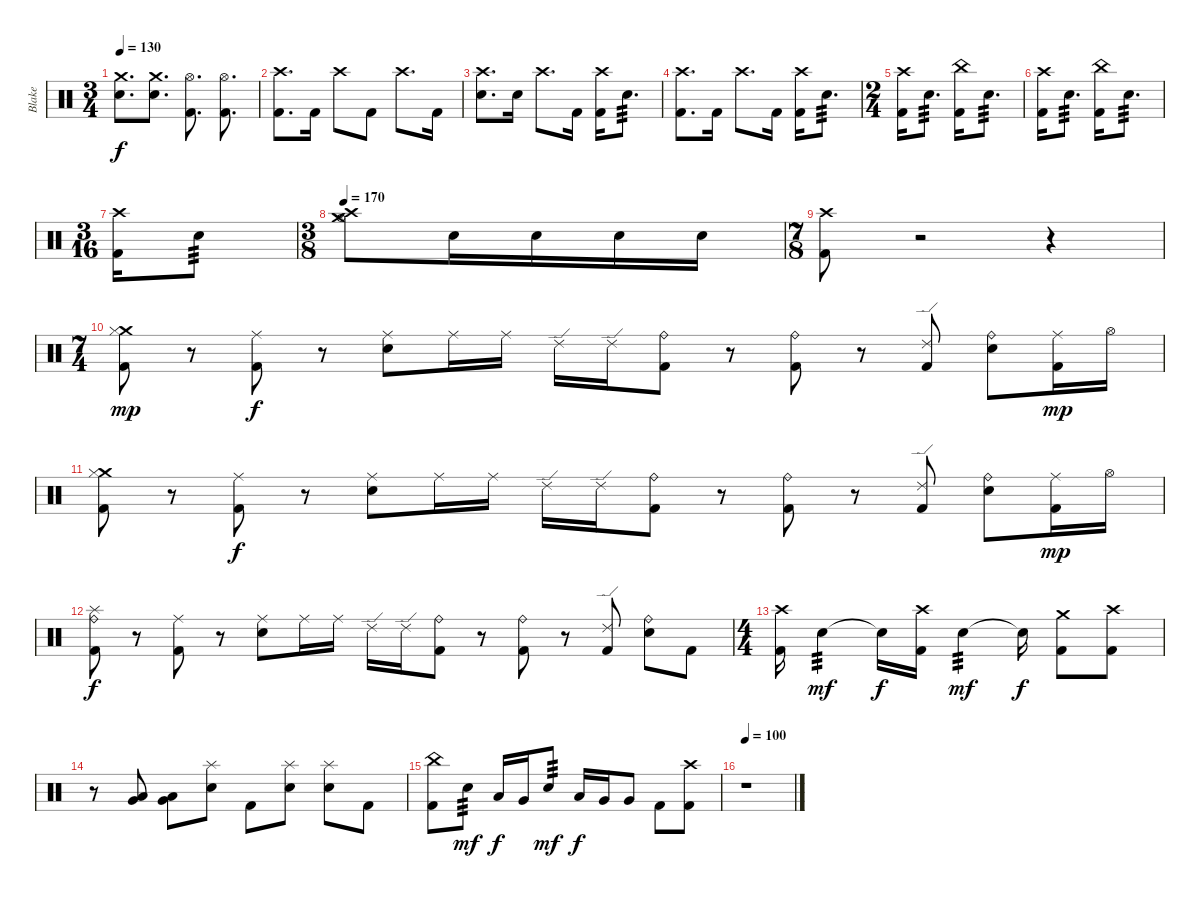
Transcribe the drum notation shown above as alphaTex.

\track ("Blake" "Blake") {instrument percussion}
\staff {score}
\articulation defaults
\ts (3 4)
\tempo 130
\clef neutral
\ks c
("Crash medium (hit)" "Snare (hit) 2").8{d dy f} ("Crash medium (hit)" "Snare (hit) 2").8{d} ("Hi-Hat (open)" "Kick (hit) 2").8{d} ("Hi-Hat (open)" "Kick (hit) 2").8{d} |
("Crash high (hit)" "Kick (hit) 2").8{d} "Kick (hit) 2".16 "Crash high (hit)".8 "Kick (hit) 2".8 "Crash high (hit)".8{d} "Kick (hit) 2".16 |
("Crash high (hit)" "Snare (hit) 2").8{d} "Snare (hit) 2".16 "Crash high (hit)".8{d} "Kick (hit) 2".16 ("Crash high (hit)" "Kick (hit) 2").16 "Snare (hit) 2".8{d tp 3} |
("Crash high (hit)" "Kick (hit) 2").8{d} "Kick (hit) 2".16 "Crash high (hit)".8{d} "Kick (hit) 2".16 ("Crash high (hit)" "Kick (hit) 2").16 "Snare (hit) 2".8{d tp 3} |
\ts (2 4)
("Crash high (hit)" "Kick (hit) 2").16 "Snare (hit) 2".8{d tp 3} ("China (hit)" "Kick (hit) 2").16 "Snare (hit) 2".8{d tp 3} |
("Crash high (hit)" "Kick (hit) 2").16 "Snare (hit) 2".8{d tp 3} ("China (hit)" "Kick (hit) 2").16 "Snare (hit) 2".8{d tp 3} |
\ts (3 16)
("Crash high (hit)" "Kick (hit) 2").16 "Snare (hit) 2".8{tp 3} |
\ts (3 8)
\tempo 170
("Crash medium (hit)" "Crash high (hit)" "Hi-Hat (open)").8 "Snare (hit) 2".16 "Snare (hit) 2".16 "Snare (hit) 2".16 "Snare (hit) 2".16 |
\ts (7 8)
("Crash high (hit)" "Kick (hit) 2").8 r.2 r.4 |
\ts (7 4)
("Crash medium (hit)" "Hi-Hat (closed)" "Kick (hit) 2").8{dy mp} r.8 ("Ride (middle)" "Kick (hit) 2").8{dy f} r.8 ("Ride (middle)" "Snare (hit) 2").8 "Ride (middle)".16 "Ride (middle)".16 "Ride (edge) 2".16 "Ride (edge) 2".16 ("Ride (bell)" "Kick (hit) 2").8 r.8 ("Ride (bell)" "Kick (hit) 2").8 r.8 ("Ride (edge) 2" "Kick (hit) 2").8 ("Ride (bell)" "Snare (hit) 2").8 ("Ride (middle)" "Kick (hit) 2").16{dy mp} "Hi-Hat (open)".16 |
("Crash medium (hit)" "Hi-Hat (closed)" "Kick (hit) 2").8 r.8 ("Ride (middle)" "Kick (hit) 2").8{dy f} r.8 ("Ride (middle)" "Snare (hit) 2").8 "Ride (middle)".16 "Ride (middle)".16 "Ride (edge) 2".16 "Ride (edge) 2".16 ("Ride (bell)" "Kick (hit) 2").8 r.8 ("Ride (bell)" "Kick (hit) 2").8 r.8 ("Ride (edge) 2" "Kick (hit) 2").8 ("Ride (bell)" "Snare (hit) 2").8 ("Ride (middle)" "Kick (hit) 2").16{dy mp} "Hi-Hat (open)".16 |
("Splash (hit)" "Ride (bell)" "Kick (hit) 2").8{dy f} r.8 ("Ride (middle)" "Kick (hit) 2").8 r.8 ("Ride (middle)" "Snare (hit) 2").8 "Ride (middle)".16 "Ride (middle)".16 "Ride (edge) 2".16 "Ride (edge) 2".16 ("Ride (bell)" "Kick (hit) 2").8 r.8 ("Ride (bell)" "Kick (hit) 2").8 r.8 ("Ride (edge) 2" "Kick (hit) 2").8 ("Ride (bell)" "Snare (hit) 2").8 "Kick (hit) 2".8 |
\ts (4 4)
("Crash high (hit)" "Kick (hit) 2").16 "Snare (hit) 2".4{tp 3 dy mf} "Snare (hit) 2"{t}.16{dy f} ("Crash high (hit)" "Kick (hit) 2").16 "Snare (hit) 2".4{tp 3 dy mf} "Snare (hit) 2"{t}.16{dy f} ("Crash medium (hit)" "Kick (hit) 2").8 ("Crash high (hit)" "Kick (hit) 2").8 |
r.8 ("Low Tom (hit)" "Very Low Tom (hit)").8 ("Low Tom (hit)" "Very Low Tom (hit)").8 ("Splash (hit)" "Snare (hit) 2").8 "Kick (hit) 2".8 ("Splash (hit)" "Snare (hit) 2").8 ("Splash (hit)" "Snare (hit) 2").8 "Kick (hit) 2".8 |
("China (hit)" "Kick (hit) 2").8 "Snare (hit) 2".8{tp 3 dy mf} "Low Tom (hit)".16{dy f} "Very Low Tom (hit)".16 "Snare (hit) 2".8{tp 3 dy mf} "Low Tom (hit)".16{dy f} "Very Low Tom (hit)".16 "Very Low Tom (hit)".8 "Kick (hit) 2".8 ("Crash high (hit)" "Kick (hit) 2").8 |
\tempo 100
r.1
